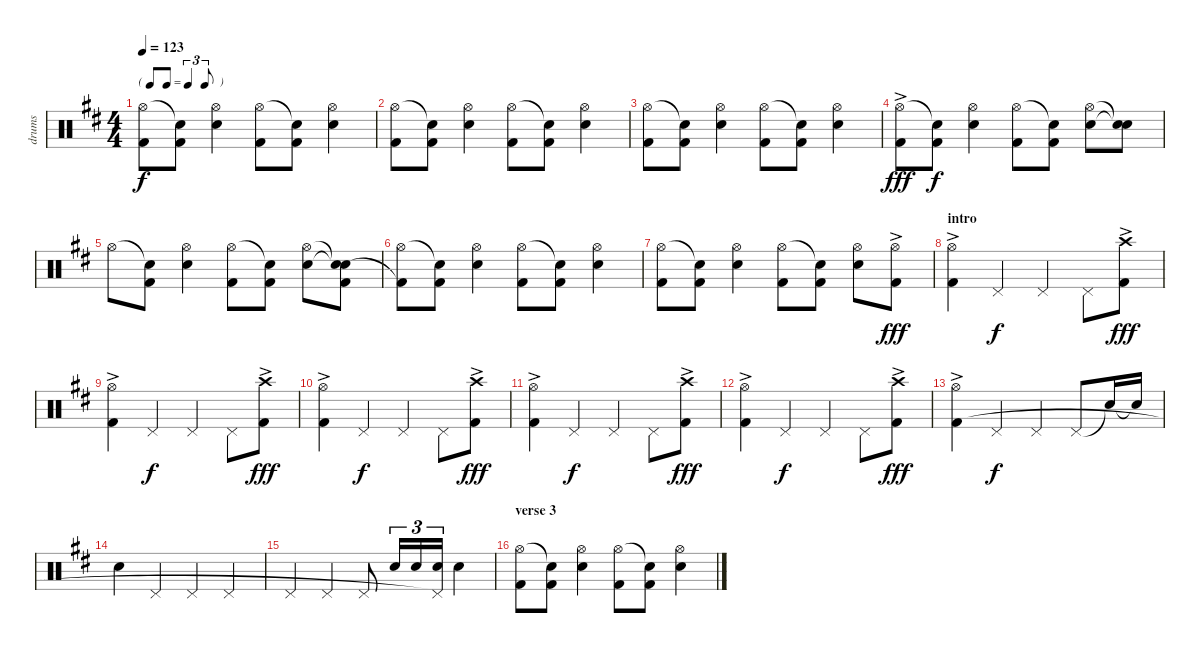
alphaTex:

\track ("drums" "drums") {instrument percussion}
\staff {score}
\articulation defaults
\ts (4 4)
\tf triplet8th
\tempo 123
\clef neutral
\ks d
("Hi-Hat (open)" "Kick (hit) 2").8{dy f} ("Snare (hit)"{t} "Kick (hit) 2").8 ("Hi-Hat (open)" "Snare (hit) 2").4 ("Hi-Hat (open)" "Kick (hit) 2").8 ("Snare (hit)"{t} "Kick (hit) 2").8 ("Hi-Hat (open)" "Snare (hit) 2").4 |
("Hi-Hat (open)" "Kick (hit) 2").8 ("Snare (hit)"{t} "Kick (hit) 2").8 ("Hi-Hat (open)" "Snare (hit) 2").4 ("Hi-Hat (open)" "Kick (hit) 2").8 ("Snare (hit)"{t} "Kick (hit) 2").8 ("Hi-Hat (open)" "Snare (hit) 2").4 |
("Hi-Hat (open)" "Kick (hit) 2").8 ("Snare (hit)"{t} "Kick (hit) 2").8 ("Hi-Hat (open)" "Snare (hit) 2").4 ("Hi-Hat (open)" "Kick (hit) 2").8 ("Snare (hit)"{t} "Kick (hit) 2").8 ("Hi-Hat (open)" "Snare (hit) 2").4 |
("Hi-Hat (open)"{ac} "Kick (hit) 2").8{dy fff} ("Snare (hit)"{t} "Kick (hit) 2").8{dy f} ("Hi-Hat (open)" "Snare (hit) 2").4 ("Hi-Hat (open)" "Kick (hit) 2").8 ("Snare (hit)"{t} "Kick (hit) 2").8 ("Hi-Hat (open)" "Snare (hit) 2").8 ("Snare (hit)"{t} "Snare (hit)"{t}).8 |
"Hi-Hat (open)".8 ("Snare (hit)"{t} "Kick (hit) 2").8 ("Hi-Hat (open)" "Snare (hit) 2").4 ("Hi-Hat (open)" "Kick (hit) 2").8 ("Snare (hit)"{t} "Kick (hit) 2").8 ("Hi-Hat (open)" "Snare (hit) 2").8 ("Snare (hit)"{t} "Snare (hit)"{t} "Kick (hit) 2").8 |
("Hi-Hat (open)" "Kick (hit) 2"{t}).8 ("Snare (hit)"{t} "Kick (hit) 2").8 ("Hi-Hat (open)" "Snare (hit) 2").4 ("Hi-Hat (open)" "Kick (hit) 2").8 ("Snare (hit)"{t} "Kick (hit) 2").8 ("Hi-Hat (open)" "Snare (hit) 2").4 |
("Hi-Hat (open)" "Kick (hit) 2").8 ("Snare (hit)"{t} "Kick (hit) 2").8 ("Hi-Hat (open)" "Snare (hit) 2").4 ("Hi-Hat (open)" "Kick (hit) 2").8 ("Snare (hit)"{t} "Kick (hit) 2").8 ("Hi-Hat (open)" "Snare (hit) 2").8 ("Hi-Hat (open)"{ac} "Kick (hit) 2").8{dy fff} |
\section ("" "intro")
("Hi-Hat (open)"{ac} "Kick (hit) 2").4 "Pedal Hi-Hat (hit)".4{dy f} "Pedal Hi-Hat (hit)".4 "Pedal Hi-Hat (hit)".8 ("Crash high (hit)"{ac} "Kick (hit) 2").8{dy fff} |
("Hi-Hat (open)"{ac} "Kick (hit) 2").4 "Pedal Hi-Hat (hit)".4{dy f} "Pedal Hi-Hat (hit)".4 "Pedal Hi-Hat (hit)".8 ("Crash high (hit)"{ac} "Kick (hit) 2").8{dy fff} |
("Hi-Hat (open)"{ac} "Kick (hit) 2").4 "Pedal Hi-Hat (hit)".4{dy f} "Pedal Hi-Hat (hit)".4 "Pedal Hi-Hat (hit)".8 ("Crash high (hit)"{ac} "Kick (hit) 2").8{dy fff} |
("Hi-Hat (open)"{ac} "Kick (hit) 2").4 "Pedal Hi-Hat (hit)".4{dy f} "Pedal Hi-Hat (hit)".4 "Pedal Hi-Hat (hit)".8 ("Crash high (hit)"{ac} "Kick (hit) 2").8{dy fff} |
("Hi-Hat (open)"{ac} "Kick (hit) 2").4 "Pedal Hi-Hat (hit)".4{dy f} "Pedal Hi-Hat (hit)".4 "Pedal Hi-Hat (hit)".8 ("Crash high (hit)"{ac} "Kick (hit) 2").8{dy fff} |
("Hi-Hat (open)"{ac} "Kick (hit) 2").4 "Pedal Hi-Hat (hit)".4{dy f} "Pedal Hi-Hat (hit)".4 "Pedal Hi-Hat (hit)".8 "Snare (hit)"{t}.16 "Snare (hit)"{t}.16 |
"Snare (hit) 2".4 "Pedal Hi-Hat (hit)".4 "Pedal Hi-Hat (hit)".4 "Pedal Hi-Hat (hit)".4 |
"Pedal Hi-Hat (hit)".4 "Pedal Hi-Hat (hit)".4 "Pedal Hi-Hat (hit)".8 "Snare (hit) 2".16{tu (3 2)} "Snare (hit) 2".16{tu (3 2)} ("Snare (hit) 2" "Pedal Hi-Hat (hit)"{t}).16{tu (3 2)} "Snare (hit) 2".4 |
\section ("" "verse 3")
("Hi-Hat (open)" "Kick (hit) 2").8 ("Snare (hit)"{t} "Kick (hit) 2").8 ("Hi-Hat (open)" "Snare (hit) 2").4 ("Hi-Hat (open)" "Kick (hit) 2").8 ("Snare (hit)"{t} "Kick (hit) 2").8 ("Hi-Hat (open)" "Snare (hit) 2").4
